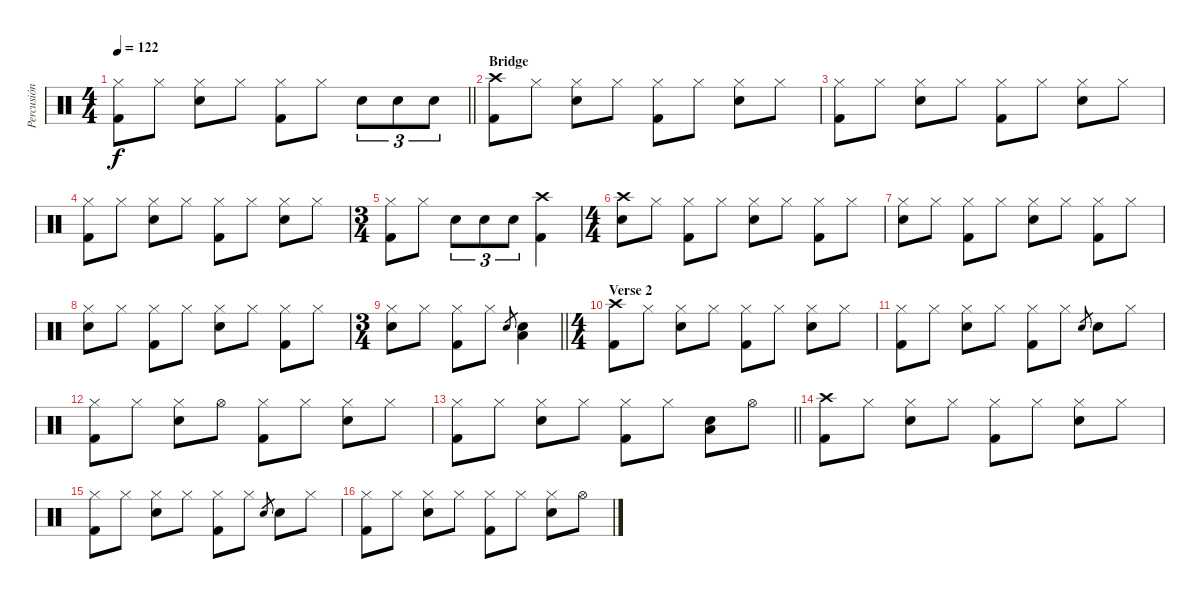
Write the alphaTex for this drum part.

\track ("Percusión" "Percusión") {instrument percussion}
\staff {score}
\articulation defaults
\ts (4 4)
\tempo 122
\clef neutral
\barLineRight lightlight
\ks c
("Hi-Hat (closed)" "Kick (hit) 2").8{dy f} "Hi-Hat (closed)".8 ("Hi-Hat (closed)" "Electric Snare (hit)").8 "Hi-Hat (closed)".8 ("Hi-Hat (closed)" "Kick (hit) 2").8 "Hi-Hat (closed)".8 "Electric Snare (hit)".8{tu (3 2)} "Electric Snare (hit)".8{tu (3 2)} "Electric Snare (hit)".8{tu (3 2)} |
\section ("" "Bridge")
("Crash high (hit)" "Kick (hit) 2").8 "Hi-Hat (closed)".8 ("Hi-Hat (closed)" "Electric Snare (hit)").8 "Hi-Hat (closed)".8 ("Hi-Hat (closed)" "Kick (hit) 2").8 "Hi-Hat (closed)".8 ("Hi-Hat (closed)" "Electric Snare (hit)").8 "Hi-Hat (closed)".8 |
("Hi-Hat (closed)" "Kick (hit) 2").8 "Hi-Hat (closed)".8 ("Hi-Hat (closed)" "Electric Snare (hit)").8 "Hi-Hat (closed)".8 ("Hi-Hat (closed)" "Kick (hit) 2").8 "Hi-Hat (closed)".8 ("Hi-Hat (closed)" "Electric Snare (hit)").8 "Hi-Hat (closed)".8 |
("Hi-Hat (closed)" "Kick (hit) 2").8 "Hi-Hat (closed)".8 ("Hi-Hat (closed)" "Electric Snare (hit)").8 "Hi-Hat (closed)".8 ("Hi-Hat (closed)" "Kick (hit) 2").8 "Hi-Hat (closed)".8 ("Hi-Hat (closed)" "Electric Snare (hit)").8 "Hi-Hat (closed)".8 |
\ts (3 4)
("Hi-Hat (closed)" "Kick (hit) 2").8 "Hi-Hat (closed)".8 "Electric Snare (hit)".8{tu (3 2)} "Electric Snare (hit)".8{tu (3 2)} "Electric Snare (hit)".8{tu (3 2)} ("Crash high (hit)" "Kick (hit) 2").4 |
\ts (4 4)
("Crash high (hit)" "Electric Snare (hit)").8 "Hi-Hat (closed)".8 ("Hi-Hat (closed)" "Kick (hit) 2").8 "Hi-Hat (closed)".8 ("Hi-Hat (closed)" "Electric Snare (hit)").8 "Hi-Hat (closed)".8 ("Hi-Hat (closed)" "Kick (hit) 2").8 "Hi-Hat (closed)".8 |
("Hi-Hat (closed)" "Electric Snare (hit)").8 "Hi-Hat (closed)".8 ("Hi-Hat (closed)" "Kick (hit) 2").8 "Hi-Hat (closed)".8 ("Hi-Hat (closed)" "Electric Snare (hit)").8 "Hi-Hat (closed)".8 ("Hi-Hat (closed)" "Kick (hit) 2").8 "Hi-Hat (closed)".8 |
("Hi-Hat (closed)" "Electric Snare (hit)").8 "Hi-Hat (closed)".8 ("Hi-Hat (closed)" "Kick (hit) 2").8 "Hi-Hat (closed)".8 ("Hi-Hat (closed)" "Electric Snare (hit)").8 "Hi-Hat (closed)".8 ("Hi-Hat (closed)" "Kick (hit) 2").8 "Hi-Hat (closed)".8 |
\ts (3 4)
\barLineRight lightlight
("Hi-Hat (closed)" "Electric Snare (hit)").8 "Hi-Hat (closed)".8 ("Hi-Hat (closed)" "Kick (hit) 2").8 "Hi-Hat (closed)".8 "Electric Snare (hit)".8{gr} ("Electric Snare (hit)" "Low Floor Tom (hit)").4 |
\ts (4 4)
\section ("" "Verse 2")
("Crash high (hit)" "Kick (hit) 2").8 "Hi-Hat (closed)".8 ("Hi-Hat (closed)" "Electric Snare (hit)").8 "Hi-Hat (closed)".8 ("Hi-Hat (closed)" "Kick (hit) 2").8 "Hi-Hat (closed)".8 ("Hi-Hat (closed)" "Electric Snare (hit)").8 "Hi-Hat (closed)".8 |
("Hi-Hat (closed)" "Kick (hit) 2").8 "Hi-Hat (closed)".8 ("Hi-Hat (closed)" "Electric Snare (hit)").8 "Hi-Hat (closed)".8 ("Hi-Hat (closed)" "Kick (hit) 2").8 "Hi-Hat (closed)".8 "Electric Snare (hit)".8{gr} "Electric Snare (hit)".8 "Hi-Hat (closed)".8 |
("Hi-Hat (closed)" "Kick (hit) 2").8 "Hi-Hat (closed)".8 ("Hi-Hat (closed)" "Electric Snare (hit)").8 "Hi-Hat (open)".8 ("Hi-Hat (closed)" "Kick (hit) 2").8 "Hi-Hat (closed)".8 ("Hi-Hat (closed)" "Electric Snare (hit)").8 "Hi-Hat (closed)".8 |
\barLineRight lightlight
("Hi-Hat (closed)" "Kick (hit) 2").8 "Hi-Hat (closed)".8 ("Hi-Hat (closed)" "Electric Snare (hit)").8 "Hi-Hat (closed)".8 ("Hi-Hat (closed)" "Kick (hit) 2").8 "Hi-Hat (closed)".8 ("Electric Snare (hit)" "Low Floor Tom (hit)").8 "Hi-Hat (open)".8 |
("Crash high (hit)" "Kick (hit) 2").8 "Hi-Hat (closed)".8 ("Hi-Hat (closed)" "Electric Snare (hit)").8 "Hi-Hat (closed)".8 ("Hi-Hat (closed)" "Kick (hit) 2").8 "Hi-Hat (closed)".8 ("Hi-Hat (closed)" "Electric Snare (hit)").8 "Hi-Hat (closed)".8 |
("Hi-Hat (closed)" "Kick (hit) 2").8 "Hi-Hat (closed)".8 ("Hi-Hat (closed)" "Electric Snare (hit)").8 "Hi-Hat (closed)".8 ("Hi-Hat (closed)" "Kick (hit) 2").8 "Hi-Hat (closed)".8 "Electric Snare (hit)".8{gr} "Electric Snare (hit)".8 "Hi-Hat (closed)".8 |
("Hi-Hat (closed)" "Kick (hit) 2").8 "Hi-Hat (closed)".8 ("Hi-Hat (closed)" "Electric Snare (hit)").8 "Hi-Hat (closed)".8 ("Hi-Hat (closed)" "Kick (hit) 2").8 "Hi-Hat (closed)".8 ("Hi-Hat (closed)" "Electric Snare (hit)").8 "Hi-Hat (open)".8
